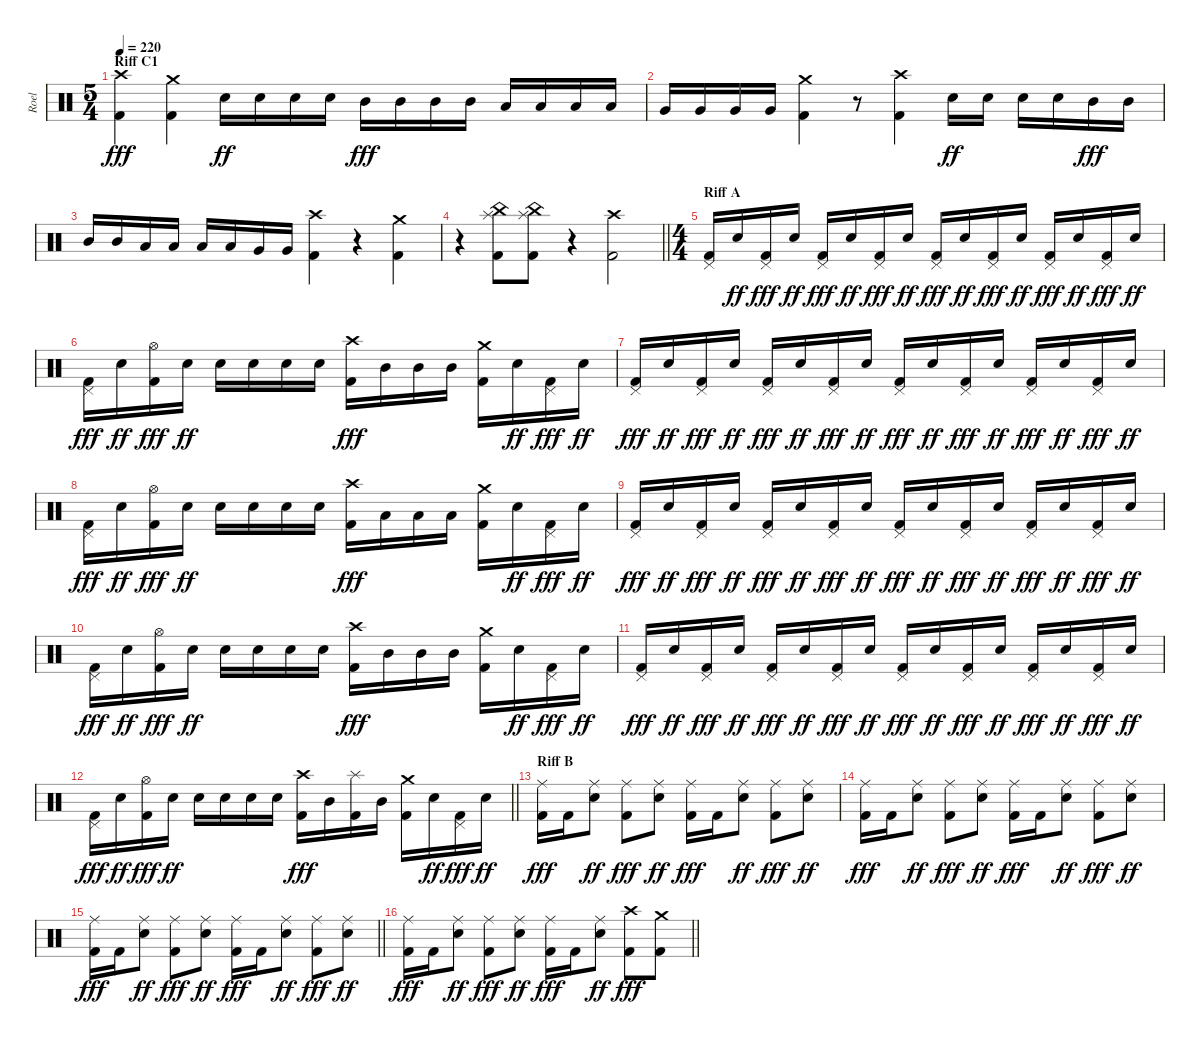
\track ("Roel" "Roel") {instrument percussion}
\staff {score}
\articulation defaults
\ts (5 4)
\section ("" "Riff C1")
\tempo 220
\clef neutral
\ks c
("Crash high (hit)" "Kick (hit) 2").4{dy fff} ("Crash medium (hit)" "Kick (hit) 2").4 "Snare (hit) 2".16{dy ff} "Snare (hit) 2".16 "Snare (hit) 2".16 "Snare (hit) 2".16 "Mid Tom (hit)".16{dy fff} "Mid Tom (hit)".16 "Mid Tom (hit)".16 "Mid Tom (hit)".16 "Low Tom (hit)".16 "Low Tom (hit)".16 "Low Tom (hit)".16 "Low Tom (hit)".16 |
"Very Low Tom (hit)".16 "Very Low Tom (hit)".16 "Very Low Tom (hit)".16 "Very Low Tom (hit)".16 ("Crash medium (hit)" "Kick (hit) 2").4 r.8 ("Crash high (hit)" "Kick (hit) 2").4 "Snare (hit) 2".16{dy ff} "Snare (hit) 2".16 "Snare (hit) 2".16 "Snare (hit) 2".16 "Mid Tom (hit)".16{dy fff} "Mid Tom (hit)".16 |
"Mid Tom (hit)".16 "Mid Tom (hit)".16 "Low Tom (hit)".16 "Low Tom (hit)".16 "Low Tom (hit)".16 "Low Tom (hit)".16 "Very Low Tom (hit)".16 "Very Low Tom (hit)".16 ("Crash high (hit)" "Kick (hit) 2").4 r.4 ("Crash medium (hit)" "Kick (hit) 2").4 |
\barLineRight lightlight
r.4 ("Splash (hit)" "China (hit)" "Kick (hit) 2").8 ("Splash (hit)" "China (hit)" "Kick (hit) 2").8 r.4 ("Crash high (hit)" "Kick (hit) 2").2 |
\ts (4 4)
\section ("" "Riff A")
("Pedal Hi-Hat (hit)" "Kick (hit) 2").16 "Snare (hit) 2".16{dy ff} ("Pedal Hi-Hat (hit)" "Kick (hit) 2").16{dy fff} "Snare (hit) 2".16{dy ff} ("Pedal Hi-Hat (hit)" "Kick (hit) 2").16{dy fff} "Snare (hit) 2".16{dy ff} ("Pedal Hi-Hat (hit)" "Kick (hit) 2").16{dy fff} "Snare (hit) 2".16{dy ff} ("Pedal Hi-Hat (hit)" "Kick (hit) 2").16{dy fff} "Snare (hit) 2".16{dy ff} ("Pedal Hi-Hat (hit)" "Kick (hit) 2").16{dy fff} "Snare (hit) 2".16{dy ff} ("Pedal Hi-Hat (hit)" "Kick (hit) 2").16{dy fff} "Snare (hit) 2".16{dy ff} ("Pedal Hi-Hat (hit)" "Kick (hit) 2").16{dy fff} "Snare (hit) 2".16{dy ff} |
("Pedal Hi-Hat (hit)" "Kick (hit) 2").16{dy fff} "Snare (hit) 2".16{dy ff} ("Hi-Hat (open)" "Kick (hit) 2").16{dy fff} "Snare (hit) 2".16{dy ff} "Snare (hit) 2".16 "Snare (hit) 2".16 "Snare (hit) 2".16 "Snare (hit) 2".16 ("Crash high (hit)" "Kick (hit) 2").16{dy fff} "Mid Tom (hit)".16 "Mid Tom (hit)".16 "Mid Tom (hit)".16 ("Crash medium (hit)" "Kick (hit) 2").16 "Snare (hit) 2".16{dy ff} ("Pedal Hi-Hat (hit)" "Kick (hit) 2").16{dy fff} "Snare (hit) 2".16{dy ff} |
("Pedal Hi-Hat (hit)" "Kick (hit) 2").16{dy fff} "Snare (hit) 2".16{dy ff} ("Pedal Hi-Hat (hit)" "Kick (hit) 2").16{dy fff} "Snare (hit) 2".16{dy ff} ("Pedal Hi-Hat (hit)" "Kick (hit) 2").16{dy fff} "Snare (hit) 2".16{dy ff} ("Pedal Hi-Hat (hit)" "Kick (hit) 2").16{dy fff} "Snare (hit) 2".16{dy ff} ("Pedal Hi-Hat (hit)" "Kick (hit) 2").16{dy fff} "Snare (hit) 2".16{dy ff} ("Pedal Hi-Hat (hit)" "Kick (hit) 2").16{dy fff} "Snare (hit) 2".16{dy ff} ("Pedal Hi-Hat (hit)" "Kick (hit) 2").16{dy fff} "Snare (hit) 2".16{dy ff} ("Pedal Hi-Hat (hit)" "Kick (hit) 2").16{dy fff} "Snare (hit) 2".16{dy ff} |
("Pedal Hi-Hat (hit)" "Kick (hit) 2").16{dy fff} "Snare (hit) 2".16{dy ff} ("Hi-Hat (open)" "Kick (hit) 2").16{dy fff} "Snare (hit) 2".16{dy ff} "Snare (hit) 2".16 "Snare (hit) 2".16 "Snare (hit) 2".16 "Snare (hit) 2".16 ("Crash high (hit)" "Kick (hit) 2").16{dy fff} "Low Tom (hit)".16 "Low Tom (hit)".16 "Low Tom (hit)".16 ("Crash medium (hit)" "Kick (hit) 2").16 "Snare (hit) 2".16{dy ff} ("Pedal Hi-Hat (hit)" "Kick (hit) 2").16{dy fff} "Snare (hit) 2".16{dy ff} |
("Pedal Hi-Hat (hit)" "Kick (hit) 2").16{dy fff} "Snare (hit) 2".16{dy ff} ("Pedal Hi-Hat (hit)" "Kick (hit) 2").16{dy fff} "Snare (hit) 2".16{dy ff} ("Pedal Hi-Hat (hit)" "Kick (hit) 2").16{dy fff} "Snare (hit) 2".16{dy ff} ("Pedal Hi-Hat (hit)" "Kick (hit) 2").16{dy fff} "Snare (hit) 2".16{dy ff} ("Pedal Hi-Hat (hit)" "Kick (hit) 2").16{dy fff} "Snare (hit) 2".16{dy ff} ("Pedal Hi-Hat (hit)" "Kick (hit) 2").16{dy fff} "Snare (hit) 2".16{dy ff} ("Pedal Hi-Hat (hit)" "Kick (hit) 2").16{dy fff} "Snare (hit) 2".16{dy ff} ("Pedal Hi-Hat (hit)" "Kick (hit) 2").16{dy fff} "Snare (hit) 2".16{dy ff} |
("Pedal Hi-Hat (hit)" "Kick (hit) 2").16{dy fff} "Snare (hit) 2".16{dy ff} ("Hi-Hat (open)" "Kick (hit) 2").16{dy fff} "Snare (hit) 2".16{dy ff} "Snare (hit) 2".16 "Snare (hit) 2".16 "Snare (hit) 2".16 "Snare (hit) 2".16 ("Crash high (hit)" "Kick (hit) 2").16{dy fff} "Mid Tom (hit)".16 "Mid Tom (hit)".16 "Mid Tom (hit)".16 ("Crash medium (hit)" "Kick (hit) 2").16 "Snare (hit) 2".16{dy ff} ("Pedal Hi-Hat (hit)" "Kick (hit) 2").16{dy fff} "Snare (hit) 2".16{dy ff} |
("Pedal Hi-Hat (hit)" "Kick (hit) 2").16{dy fff} "Snare (hit) 2".16{dy ff} ("Pedal Hi-Hat (hit)" "Kick (hit) 2").16{dy fff} "Snare (hit) 2".16{dy ff} ("Pedal Hi-Hat (hit)" "Kick (hit) 2").16{dy fff} "Snare (hit) 2".16{dy ff} ("Pedal Hi-Hat (hit)" "Kick (hit) 2").16{dy fff} "Snare (hit) 2".16{dy ff} ("Pedal Hi-Hat (hit)" "Kick (hit) 2").16{dy fff} "Snare (hit) 2".16{dy ff} ("Pedal Hi-Hat (hit)" "Kick (hit) 2").16{dy fff} "Snare (hit) 2".16{dy ff} ("Pedal Hi-Hat (hit)" "Kick (hit) 2").16{dy fff} "Snare (hit) 2".16{dy ff} ("Pedal Hi-Hat (hit)" "Kick (hit) 2").16{dy fff} "Snare (hit) 2".16{dy ff} |
\barLineRight lightlight
("Pedal Hi-Hat (hit)" "Kick (hit) 2").16{dy fff} "Snare (hit) 2".16{dy ff} ("Hi-Hat (open)" "Kick (hit) 2").16{dy fff} "Snare (hit) 2".16{dy ff} "Snare (hit) 2".16 "Snare (hit) 2".16 "Snare (hit) 2".16 "Snare (hit) 2".16 ("Crash high (hit)" "Kick (hit) 2").16{dy fff} "Mid Tom (hit)".16 ("Splash (hit)" "Kick (hit) 2").16 "Mid Tom (hit)".16 ("Crash medium (hit)" "Kick (hit) 2").16 "Snare (hit) 2".16{dy ff} ("Pedal Hi-Hat (hit)" "Kick (hit) 2").16{dy fff} "Snare (hit) 2".16{dy ff} |
\section ("" "Riff B")
("Ride (middle)" "Kick (hit) 2").16{dy fff} "Kick (hit) 2".16 ("Ride (middle)" "Snare (hit) 2").8{dy ff} ("Ride (middle)" "Kick (hit) 2").8{dy fff} ("Ride (middle)" "Snare (hit) 2").8{dy ff} ("Ride (middle)" "Kick (hit) 2").16{dy fff} "Kick (hit) 2".16 ("Ride (middle)" "Snare (hit) 2").8{dy ff} ("Ride (middle)" "Kick (hit) 2").8{dy fff} ("Ride (middle)" "Snare (hit) 2").8{dy ff} |
("Ride (middle)" "Kick (hit) 2").16{dy fff} "Kick (hit) 2".16 ("Ride (middle)" "Snare (hit) 2").8{dy ff} ("Ride (middle)" "Kick (hit) 2").8{dy fff} ("Ride (middle)" "Snare (hit) 2").8{dy ff} ("Ride (middle)" "Kick (hit) 2").16{dy fff} "Kick (hit) 2".16 ("Ride (middle)" "Snare (hit) 2").8{dy ff} ("Ride (middle)" "Kick (hit) 2").8{dy fff} ("Ride (middle)" "Snare (hit) 2").8{dy ff} |
\barLineRight lightlight
("Ride (middle)" "Kick (hit) 2").16{dy fff} "Kick (hit) 2".16 ("Ride (middle)" "Snare (hit) 2").8{dy ff} ("Ride (middle)" "Kick (hit) 2").8{dy fff} ("Ride (middle)" "Snare (hit) 2").8{dy ff} ("Ride (middle)" "Kick (hit) 2").16{dy fff} "Kick (hit) 2".16 ("Ride (middle)" "Snare (hit) 2").8{dy ff} ("Ride (middle)" "Kick (hit) 2").8{dy fff} ("Ride (middle)" "Snare (hit) 2").8{dy ff} |
\barLineRight lightlight
("Ride (middle)" "Kick (hit) 2").16{dy fff} "Kick (hit) 2".16 ("Ride (middle)" "Snare (hit) 2").8{dy ff} ("Ride (middle)" "Kick (hit) 2").8{dy fff} ("Ride (middle)" "Snare (hit) 2").8{dy ff} ("Ride (middle)" "Kick (hit) 2").16{dy fff} "Kick (hit) 2".16 ("Ride (middle)" "Snare (hit) 2").8{dy ff} ("Crash high (hit)" "Kick (hit) 2").8{dy fff} ("Crash medium (hit)" "Kick (hit) 2").8
